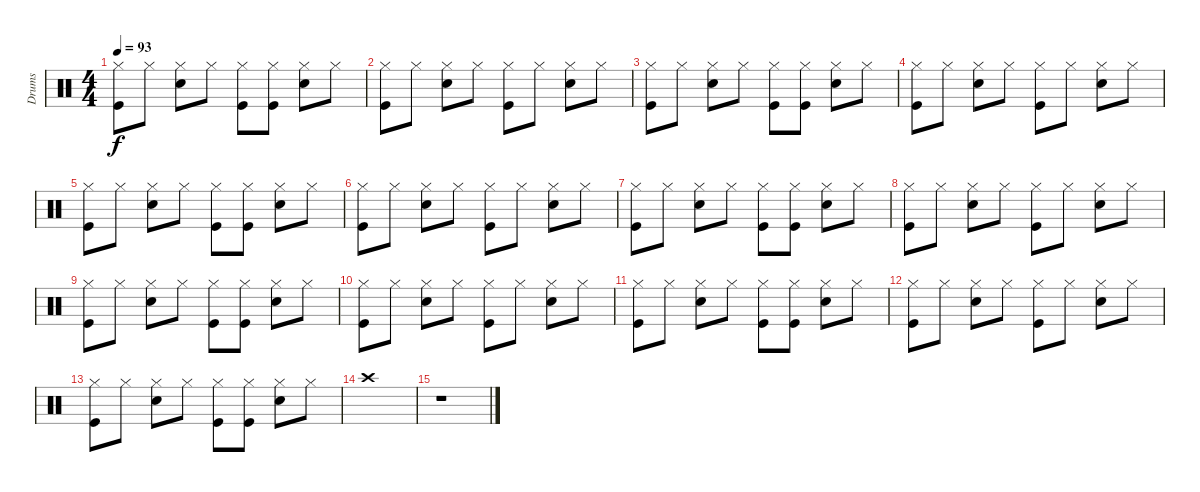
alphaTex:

\track ("Drums" "Drums") {instrument percussion}
\staff {score}
\articulation defaults
\ts (4 4)
\tempo 93
\clef neutral
\ks c
("Hi-Hat (closed)" "Kick (hit)").8{dy f} "Hi-Hat (closed)".8 ("Hi-Hat (closed)" "Snare (hit) 2").8 "Hi-Hat (closed)".8 ("Hi-Hat (closed)" "Kick (hit)").8 ("Hi-Hat (closed)" "Kick (hit)").8 ("Hi-Hat (closed)" "Snare (hit) 2").8 "Hi-Hat (closed)".8 |
("Hi-Hat (closed)" "Kick (hit)").8 "Hi-Hat (closed)".8 ("Hi-Hat (closed)" "Snare (hit) 2").8 "Hi-Hat (closed)".8 ("Hi-Hat (closed)" "Kick (hit)").8 "Hi-Hat (closed)".8 ("Hi-Hat (closed)" "Snare (hit) 2").8 "Hi-Hat (closed)".8 |
("Hi-Hat (closed)" "Kick (hit)").8 "Hi-Hat (closed)".8 ("Hi-Hat (closed)" "Snare (hit) 2").8 "Hi-Hat (closed)".8 ("Hi-Hat (closed)" "Kick (hit)").8 ("Hi-Hat (closed)" "Kick (hit)").8 ("Hi-Hat (closed)" "Snare (hit) 2").8 "Hi-Hat (closed)".8 |
("Hi-Hat (closed)" "Kick (hit)").8 "Hi-Hat (closed)".8 ("Hi-Hat (closed)" "Snare (hit) 2").8 "Hi-Hat (closed)".8 ("Hi-Hat (closed)" "Kick (hit)").8 "Hi-Hat (closed)".8 ("Hi-Hat (closed)" "Snare (hit) 2").8 "Hi-Hat (closed)".8 |
("Hi-Hat (closed)" "Kick (hit)").8 "Hi-Hat (closed)".8 ("Hi-Hat (closed)" "Snare (hit) 2").8 "Hi-Hat (closed)".8 ("Hi-Hat (closed)" "Kick (hit)").8 ("Hi-Hat (closed)" "Kick (hit)").8 ("Hi-Hat (closed)" "Snare (hit) 2").8 "Hi-Hat (closed)".8 |
("Hi-Hat (closed)" "Kick (hit)").8 "Hi-Hat (closed)".8 ("Hi-Hat (closed)" "Snare (hit) 2").8 "Hi-Hat (closed)".8 ("Hi-Hat (closed)" "Kick (hit)").8 "Hi-Hat (closed)".8 ("Hi-Hat (closed)" "Snare (hit) 2").8 "Hi-Hat (closed)".8 |
("Hi-Hat (closed)" "Kick (hit)").8 "Hi-Hat (closed)".8 ("Hi-Hat (closed)" "Snare (hit) 2").8 "Hi-Hat (closed)".8 ("Hi-Hat (closed)" "Kick (hit)").8 ("Hi-Hat (closed)" "Kick (hit)").8 ("Hi-Hat (closed)" "Snare (hit) 2").8 "Hi-Hat (closed)".8 |
("Hi-Hat (closed)" "Kick (hit)").8 "Hi-Hat (closed)".8 ("Hi-Hat (closed)" "Snare (hit) 2").8 "Hi-Hat (closed)".8 ("Hi-Hat (closed)" "Kick (hit)").8 "Hi-Hat (closed)".8 ("Hi-Hat (closed)" "Snare (hit) 2").8 "Hi-Hat (closed)".8 |
("Hi-Hat (closed)" "Kick (hit)").8 "Hi-Hat (closed)".8 ("Hi-Hat (closed)" "Snare (hit) 2").8 "Hi-Hat (closed)".8 ("Hi-Hat (closed)" "Kick (hit)").8 ("Hi-Hat (closed)" "Kick (hit)").8 ("Hi-Hat (closed)" "Snare (hit) 2").8 "Hi-Hat (closed)".8 |
("Hi-Hat (closed)" "Kick (hit)").8 "Hi-Hat (closed)".8 ("Hi-Hat (closed)" "Snare (hit) 2").8 "Hi-Hat (closed)".8 ("Hi-Hat (closed)" "Kick (hit)").8 "Hi-Hat (closed)".8 ("Hi-Hat (closed)" "Snare (hit) 2").8 "Hi-Hat (closed)".8 |
("Hi-Hat (closed)" "Kick (hit)").8 "Hi-Hat (closed)".8 ("Hi-Hat (closed)" "Snare (hit) 2").8 "Hi-Hat (closed)".8 ("Hi-Hat (closed)" "Kick (hit)").8 ("Hi-Hat (closed)" "Kick (hit)").8 ("Hi-Hat (closed)" "Snare (hit) 2").8 "Hi-Hat (closed)".8 |
("Hi-Hat (closed)" "Kick (hit)").8 "Hi-Hat (closed)".8 ("Hi-Hat (closed)" "Snare (hit) 2").8 "Hi-Hat (closed)".8 ("Hi-Hat (closed)" "Kick (hit)").8 "Hi-Hat (closed)".8 ("Hi-Hat (closed)" "Snare (hit) 2").8 "Hi-Hat (closed)".8 |
("Hi-Hat (closed)" "Kick (hit)").8 "Hi-Hat (closed)".8 ("Hi-Hat (closed)" "Snare (hit) 2").8 "Hi-Hat (closed)".8 ("Hi-Hat (closed)" "Kick (hit)").8 ("Hi-Hat (closed)" "Kick (hit)").8 ("Hi-Hat (closed)" "Snare (hit) 2").8 "Hi-Hat (closed)".8 |
"Crash high (hit)".1 |
r.1
